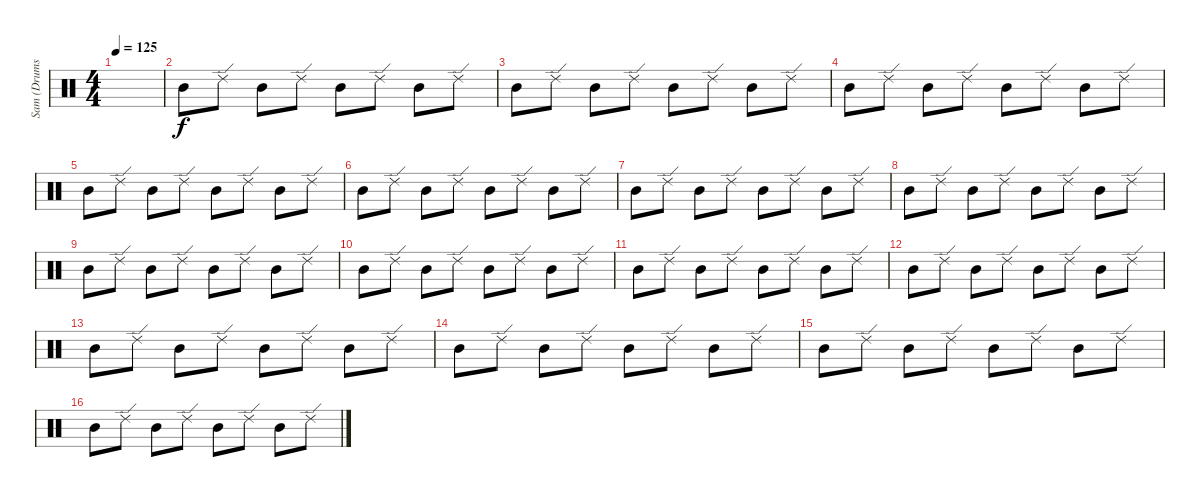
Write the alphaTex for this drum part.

\track ("Sam (Drums)" "Sam (Drums") {instrument percussion}
\staff {score}
\articulation defaults
\ts (4 4)
\tempo 125
\clef neutral
\ks c
|
"Mid Tom (hit)".8 "Ride (edge) 2".8 "Mid Tom (hit)".8 "Ride (edge) 2".8 "Mid Tom (hit)".8 "Ride (edge) 2".8 "Mid Tom (hit)".8 "Ride (edge) 2".8 |
"Mid Tom (hit)".8 "Ride (edge) 2".8 "Mid Tom (hit)".8 "Ride (edge) 2".8 "Mid Tom (hit)".8 "Ride (edge) 2".8 "Mid Tom (hit)".8 "Ride (edge) 2".8 |
"Mid Tom (hit)".8 "Ride (edge) 2".8 "Mid Tom (hit)".8 "Ride (edge) 2".8 "Mid Tom (hit)".8 "Ride (edge) 2".8 "Mid Tom (hit)".8 "Ride (edge) 2".8 |
"Mid Tom (hit)".8 "Ride (edge) 2".8 "Mid Tom (hit)".8 "Ride (edge) 2".8 "Mid Tom (hit)".8 "Ride (edge) 2".8 "Mid Tom (hit)".8 "Ride (edge) 2".8 |
"Mid Tom (hit)".8 "Ride (edge) 2".8 "Mid Tom (hit)".8 "Ride (edge) 2".8 "Mid Tom (hit)".8 "Ride (edge) 2".8 "Mid Tom (hit)".8 "Ride (edge) 2".8 |
"Mid Tom (hit)".8 "Ride (edge) 2".8 "Mid Tom (hit)".8 "Ride (edge) 2".8 "Mid Tom (hit)".8 "Ride (edge) 2".8 "Mid Tom (hit)".8 "Ride (edge) 2".8 |
"Mid Tom (hit)".8 "Ride (edge) 2".8 "Mid Tom (hit)".8 "Ride (edge) 2".8 "Mid Tom (hit)".8 "Ride (edge) 2".8 "Mid Tom (hit)".8 "Ride (edge) 2".8 |
"Mid Tom (hit)".8 "Ride (edge) 2".8 "Mid Tom (hit)".8 "Ride (edge) 2".8 "Mid Tom (hit)".8 "Ride (edge) 2".8 "Mid Tom (hit)".8 "Ride (edge) 2".8 |
"Mid Tom (hit)".8 "Ride (edge) 2".8 "Mid Tom (hit)".8 "Ride (edge) 2".8 "Mid Tom (hit)".8 "Ride (edge) 2".8 "Mid Tom (hit)".8 "Ride (edge) 2".8 |
"Mid Tom (hit)".8 "Ride (edge) 2".8 "Mid Tom (hit)".8 "Ride (edge) 2".8 "Mid Tom (hit)".8 "Ride (edge) 2".8 "Mid Tom (hit)".8 "Ride (edge) 2".8 |
"Mid Tom (hit)".8 "Ride (edge) 2".8 "Mid Tom (hit)".8 "Ride (edge) 2".8 "Mid Tom (hit)".8 "Ride (edge) 2".8 "Mid Tom (hit)".8 "Ride (edge) 2".8 |
"Mid Tom (hit)".8 "Ride (edge) 2".8 "Mid Tom (hit)".8 "Ride (edge) 2".8 "Mid Tom (hit)".8 "Ride (edge) 2".8 "Mid Tom (hit)".8 "Ride (edge) 2".8 |
"Mid Tom (hit)".8 "Ride (edge) 2".8 "Mid Tom (hit)".8 "Ride (edge) 2".8 "Mid Tom (hit)".8 "Ride (edge) 2".8 "Mid Tom (hit)".8 "Ride (edge) 2".8 |
"Mid Tom (hit)".8 "Ride (edge) 2".8 "Mid Tom (hit)".8 "Ride (edge) 2".8 "Mid Tom (hit)".8 "Ride (edge) 2".8 "Mid Tom (hit)".8 "Ride (edge) 2".8 |
"Mid Tom (hit)".8 "Ride (edge) 2".8 "Mid Tom (hit)".8 "Ride (edge) 2".8 "Mid Tom (hit)".8 "Ride (edge) 2".8 "Mid Tom (hit)".8 "Ride (edge) 2".8
